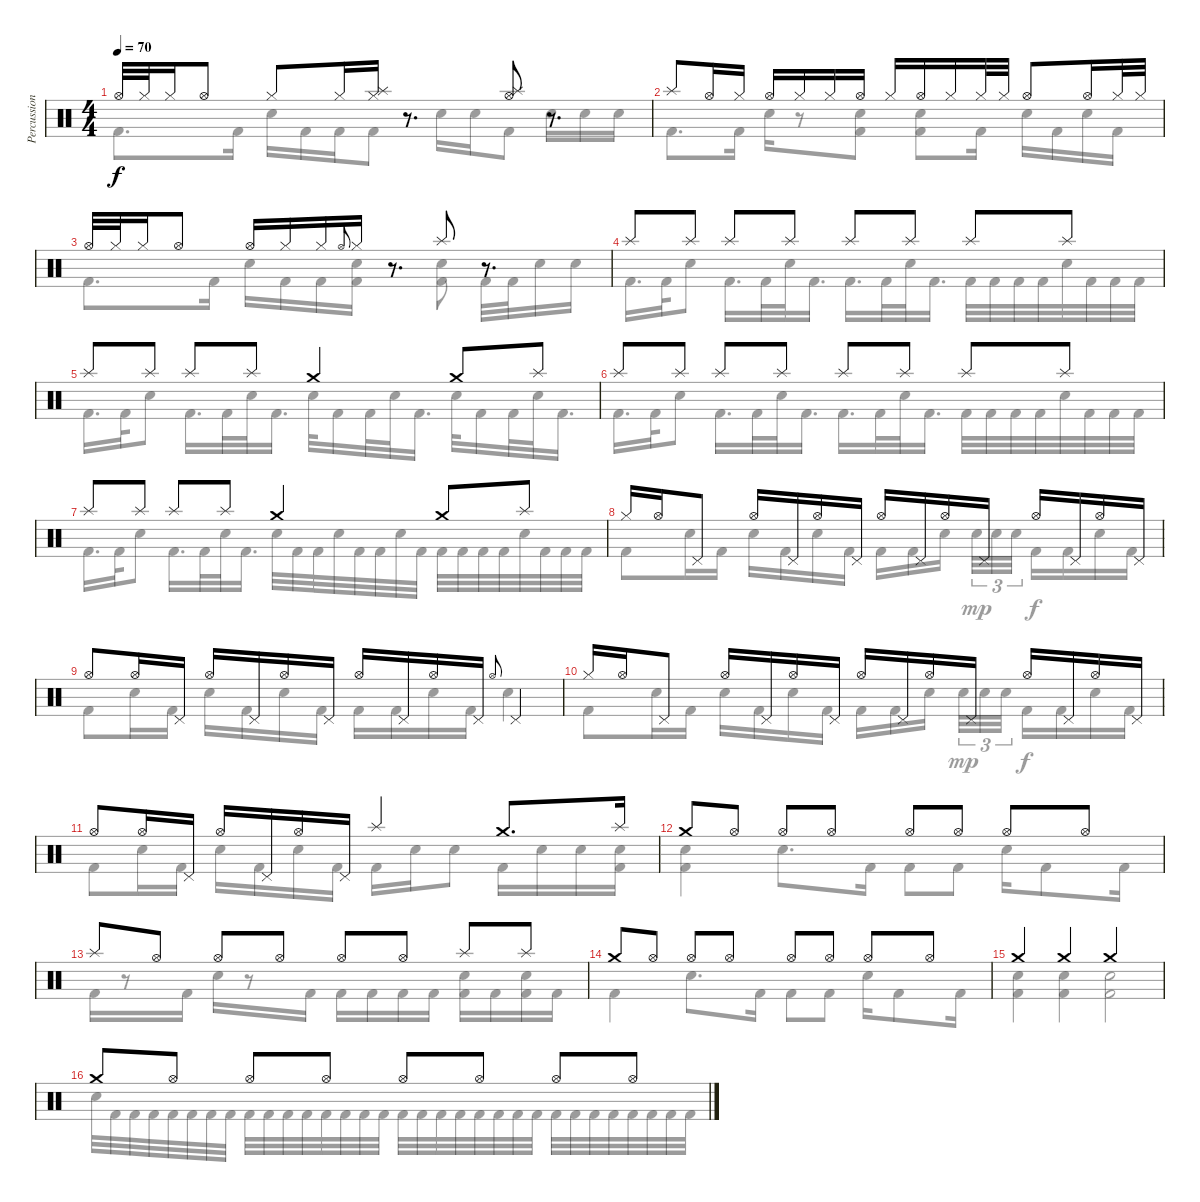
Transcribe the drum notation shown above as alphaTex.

\track ("Percussion" "Percussion") {instrument percussion}
\staff {score}
\articulation defaults
\voice
\ts (4 4)
\tempo 70
\clef neutral
\ks c "Hi-Hat (open)".32{dy f} "Hi-Hat (closed)".32 "Hi-Hat (closed)".16 "Hi-Hat (open)".8 "Hi-Hat (closed)".8 "Hi-Hat (closed)".16
("Splash (hit)" "Hi-Hat (closed)").16 r.8{d} ("Splash (hit)" "Hi-Hat (open)").8 r.8{d} |
"Splash (hit)".8 "Hi-Hat (open)".16 "Hi-Hat (closed)".16 "Hi-Hat (open)".16 "Hi-Hat (closed)".16 "Hi-Hat (closed)".16 "Hi-Hat (open)".16 "Hi-Hat (closed)".16 "Hi-Hat (open)".16 "Hi-Hat (closed)".16 "Hi-Hat (closed)".32 "Hi-Hat (closed)".32 "Hi-Hat (open)".8 "Hi-Hat (open)".16 "Hi-Hat (closed)".32 "Hi-Hat (closed)".32 |
"Hi-Hat (open)".32 "Hi-Hat (closed)".32 "Hi-Hat (closed)".16 "Hi-Hat (open)".8 "Hi-Hat (open)".16 "Hi-Hat (closed)".16 "Hi-Hat (closed)".16 "Hi-Hat (open)".8{gr onbeat} "Hi-Hat (closed)".16 r.8{d} "Splash (hit)".8 r.8{d} |
"Splash (hit)".8 "Splash (hit)".8 "Splash (hit)".8 "Splash (hit)".8 "Splash (hit)".8 "Splash (hit)".8 "Splash (hit)".8 "Splash (hit)".8 |
"Splash (hit)".8 "Splash (hit)".8 "Splash (hit)".8 "Splash (hit)".8 "Crash medium (hit)".4 "Crash medium (hit)".8 "Splash (hit)".8 |
"Splash (hit)".8 "Splash (hit)".8 "Splash (hit)".8 "Splash (hit)".8 "Splash (hit)".8 "Splash (hit)".8 "Splash (hit)".8 "Splash (hit)".8 |
"Splash (hit)".8 "Splash (hit)".8 "Splash (hit)".8 "Splash (hit)".8 "Crash medium (hit)".4 "Crash medium (hit)".8 "Splash (hit)".8 |
"Hi-Hat (closed)".16 "Hi-Hat (open)".16 "Pedal Hi-Hat (hit)".8 "Hi-Hat (open)".16 "Pedal Hi-Hat (hit)".16 "Hi-Hat (open)".16 "Pedal Hi-Hat (hit)".16 "Hi-Hat (open)".16 "Pedal Hi-Hat (hit)".16 "Hi-Hat (open)".16 "Pedal Hi-Hat (hit)".16 "Hi-Hat (open)".16 "Pedal Hi-Hat (hit)".16 "Hi-Hat (open)".16 "Pedal Hi-Hat (hit)".16 |
"Hi-Hat (open)".8 "Hi-Hat (open)".16 "Pedal Hi-Hat (hit)".16 "Hi-Hat (open)".16 "Pedal Hi-Hat (hit)".16 "Hi-Hat (open)".16 "Pedal Hi-Hat (hit)".16 "Hi-Hat (open)".16 "Pedal Hi-Hat (hit)".16 "Hi-Hat (open)".16 "Pedal Hi-Hat (hit)".16 "Hi-Hat (open)".8{gr onbeat} "Pedal Hi-Hat (hit)".4 |
"Hi-Hat (closed)".16 "Hi-Hat (open)".16 "Pedal Hi-Hat (hit)".8 "Hi-Hat (open)".16 "Pedal Hi-Hat (hit)".16 "Hi-Hat (open)".16 "Pedal Hi-Hat (hit)".16 "Hi-Hat (open)".16 "Pedal Hi-Hat (hit)".16 "Hi-Hat (open)".16 "Pedal Hi-Hat (hit)".16 "Hi-Hat (open)".16 "Pedal Hi-Hat (hit)".16 "Hi-Hat (open)".16 "Pedal Hi-Hat (hit)".16 |
"Hi-Hat (open)".8 "Hi-Hat (open)".16 "Pedal Hi-Hat (hit)".16 "Hi-Hat (open)".16 "Pedal Hi-Hat (hit)".16 "Hi-Hat (open)".16 "Pedal Hi-Hat (hit)".16 "Splash (hit)".4 "Crash medium (hit)".8{d} "Splash (hit)".16 |
"Crash medium (hit)".8 "Hi-Hat (open)".8 "Hi-Hat (open)".8 "Hi-Hat (open)".8 "Hi-Hat (open)".8 "Hi-Hat (open)".8 "Hi-Hat (open)".8 "Hi-Hat (open)".8 |
"Splash (hit)".8 "Hi-Hat (open)".8 "Hi-Hat (open)".8 "Hi-Hat (open)".8 "Hi-Hat (open)".8 "Hi-Hat (open)".8 "Splash (hit)".8 "Splash (hit)".8 |
"Crash medium (hit)".8 "Hi-Hat (open)".8 "Hi-Hat (open)".8 "Hi-Hat (open)".8 "Hi-Hat (open)".8 "Hi-Hat (open)".8 "Hi-Hat (open)".8 "Hi-Hat (open)".8 |
"Crash medium (hit)".4 "Crash medium (hit)".4 "Crash medium (hit)".2 |
"Crash medium (hit)".8 "Hi-Hat (open)".8 "Hi-Hat (open)".8 "Hi-Hat (open)".8 "Hi-Hat (open)".8 "Hi-Hat (open)".8 "Hi-Hat (open)".8 "Hi-Hat (open)".8
\voice
\clef neutral
\ottava regular
\simile none
\ks c "Kick (hit) 2".8{d dy f} "Kick (hit) 2".16 "Snare (hit) 2".16 "Kick (hit) 2".16 "Kick (hit) 2".16 "Kick (hit) 2".8 "Snare (hit) 2".16 "Snare (hit) 2".16 "Kick (hit) 2".8 "Snare (hit) 2".16 "Snare (hit) 2".16 "Snare (hit) 2".16
|
"Kick (hit) 2".8{d} "Kick (hit) 2".16 "Snare (hit) 2".16 r.8 ("Snare (hit) 2" "Kick (hit) 2").8 ("Snare (hit) 2" "Kick (hit) 2").8 "Kick (hit) 2".16 "Snare (hit) 2".16 "Kick (hit) 2".16 "Snare (hit) 2".16 "Kick (hit) 2".16 |
"Kick (hit) 2".8{d} "Kick (hit) 2".16 "Snare (hit) 2".16 "Kick (hit) 2".16 "Kick (hit) 2".16 ("Snare (hit) 2" "Kick (hit) 2").16 r.8{d} ("Snare (hit) 2" "Kick (hit) 2").8 "Kick (hit) 2".32 "Kick (hit) 2".32 "Snare (hit) 2".16 "Snare (hit) 2".16 |
"Kick (hit) 2".16{d} "Kick (hit) 2".32 "Snare (hit) 2".8 "Kick (hit) 2".16{d} "Kick (hit) 2".32 "Snare (hit) 2".32 "Kick (hit) 2".16{d} "Kick (hit) 2".16{d} "Kick (hit) 2".32 "Snare (hit) 2".32 "Kick (hit) 2".16{d} "Kick (hit) 2".32 "Kick (hit) 2".32 "Kick (hit) 2".32 "Kick (hit) 2".32 "Snare (hit) 2".32 "Kick (hit) 2".32 "Kick (hit) 2".32 "Kick (hit) 2".32 |
"Kick (hit) 2".16{d} "Kick (hit) 2".32 "Snare (hit) 2".8 "Kick (hit) 2".16{d} "Kick (hit) 2".32 "Snare (hit) 2".32 "Kick (hit) 2".16{d} "Snare (hit) 2".32 "Kick (hit) 2".16 "Kick (hit) 2".32 "Snare (hit) 2".32 "Kick (hit) 2".16{d} "Snare (hit) 2".32 "Kick (hit) 2".16 "Kick (hit) 2".32 "Snare (hit) 2".32 "Kick (hit) 2".16{d} |
"Kick (hit) 2".16{d} "Kick (hit) 2".32 "Snare (hit) 2".8 "Kick (hit) 2".16{d} "Kick (hit) 2".32 "Snare (hit) 2".32 "Kick (hit) 2".16{d} "Kick (hit) 2".16{d} "Kick (hit) 2".32 "Snare (hit) 2".32 "Kick (hit) 2".16{d} "Kick (hit) 2".32 "Kick (hit) 2".32 "Kick (hit) 2".32 "Kick (hit) 2".32 "Snare (hit) 2".32 "Kick (hit) 2".32 "Kick (hit) 2".32 "Kick (hit) 2".32 |
"Kick (hit) 2".16{d} "Kick (hit) 2".32 "Snare (hit) 2".8 "Kick (hit) 2".16{d} "Kick (hit) 2".32 "Snare (hit) 2".32 "Kick (hit) 2".16{d} "Snare (hit) 2".32 "Kick (hit) 2".32 "Kick (hit) 2".32 "Snare (hit) 2".32 "Kick (hit) 2".32 "Kick (hit) 2".32 "Snare (hit) 2".32 "Kick (hit) 2".32 "Kick (hit) 2".32 "Kick (hit) 2".32 "Kick (hit) 2".32 "Kick (hit) 2".32 "Snare (hit) 2".32 "Kick (hit) 2".32 "Kick (hit) 2".32 "Kick (hit) 2".32 |
"Kick (hit) 2".8 "Snare (hit) 2".16 "Kick (hit) 2".16 "Snare (hit) 2".16 "Kick (hit) 2".16 "Snare (hit) 2".16 "Kick (hit) 2".16 "Kick (hit) 2".16 "Kick (hit) 2".16 "Snare (hit) 2".16{beam splitsecondary} "Snare (hit) 2".32{tu (3 2) dy mp} "Snare (hit) 2".32{tu (3 2)} "Snare (hit) 2".32{tu (3 2)} "Kick (hit) 2".16{dy f} "Kick (hit) 2".16 "Snare (hit) 2".16 "Kick (hit) 2".16 |
"Kick (hit) 2".8 "Snare (hit) 2".16 "Kick (hit) 2".16 "Snare (hit) 2".16 "Kick (hit) 2".16 "Snare (hit) 2".16 "Kick (hit) 2".16 "Kick (hit) 2".16 "Kick (hit) 2".16 "Snare (hit) 2".16 "Kick (hit) 2".16 "Snare (hit) 2".4 |
"Kick (hit) 2".8 "Snare (hit) 2".16 "Kick (hit) 2".16 "Snare (hit) 2".16 "Kick (hit) 2".16 "Snare (hit) 2".16 "Kick (hit) 2".16 "Kick (hit) 2".16 "Kick (hit) 2".16 "Snare (hit) 2".16{beam splitsecondary} "Snare (hit) 2".32{tu (3 2) dy mp} "Snare (hit) 2".32{tu (3 2)} "Snare (hit) 2".32{tu (3 2)} "Kick (hit) 2".16{dy f} "Kick (hit) 2".16 "Snare (hit) 2".16 "Kick (hit) 2".16 |
"Kick (hit) 2".8 "Snare (hit) 2".16 "Kick (hit) 2".16 "Snare (hit) 2".16 "Kick (hit) 2".16 "Snare (hit) 2".16 "Kick (hit) 2".16 "Kick (hit) 2".16 "Snare (hit) 2".16 "Snare (hit) 2".8 "Kick (hit) 2".16 "Snare (hit) 2".16 "Snare (hit) 2".16 ("Snare (hit) 2" "Kick (hit) 2").16 |
("Snare (hit) 2" "Kick (hit) 2").4 "Snare (hit) 2".8{d} "Kick (hit) 2".16 "Kick (hit) 2".8 "Kick (hit) 2".8 "Snare (hit) 2".16 "Kick (hit) 2".8 "Kick (hit) 2".16 |
"Kick (hit) 2".16 r.8 "Kick (hit) 2".16 "Snare (hit) 2".16 r.8 "Kick (hit) 2".16 "Kick (hit) 2".16 "Kick (hit) 2".16 "Kick (hit) 2".16 "Kick (hit) 2".16 ("Snare (hit) 2" "Kick (hit) 2").16 "Kick (hit) 2".16 ("Snare (hit) 2" "Kick (hit) 2").16 "Kick (hit) 2".16 |
"Kick (hit) 2".4 "Snare (hit) 2".8{d} "Kick (hit) 2".16 "Kick (hit) 2".8 "Kick (hit) 2".8 "Snare (hit) 2".16 "Kick (hit) 2".8 "Kick (hit) 2".16 |
("Snare (hit) 2" "Kick (hit) 2").4 ("Snare (hit) 2" "Kick (hit) 2").4 ("Snare (hit) 2" "Kick (hit) 2").2 |
"Snare (hit) 2".32 "Kick (hit) 2".32 "Kick (hit) 2".32 "Kick (hit) 2".32 "Kick (hit) 2".32 "Kick (hit) 2".32 "Kick (hit) 2".32 "Kick (hit) 2".32 "Kick (hit) 2".32 "Kick (hit) 2".32 "Kick (hit) 2".32 "Kick (hit) 2".32 "Kick (hit) 2".32 "Kick (hit) 2".32 "Kick (hit) 2".32 "Kick (hit) 2".32 "Kick (hit) 2".32 "Kick (hit) 2".32 "Kick (hit) 2".32 "Kick (hit) 2".32 "Kick (hit) 2".32 "Kick (hit) 2".32 "Kick (hit) 2".32 "Kick (hit) 2".32 "Kick (hit) 2".32 "Kick (hit) 2".32 "Kick (hit) 2".32 "Kick (hit) 2".32 "Kick (hit) 2".32 "Kick (hit) 2".32 "Kick (hit) 2".32 "Kick (hit) 2".32
